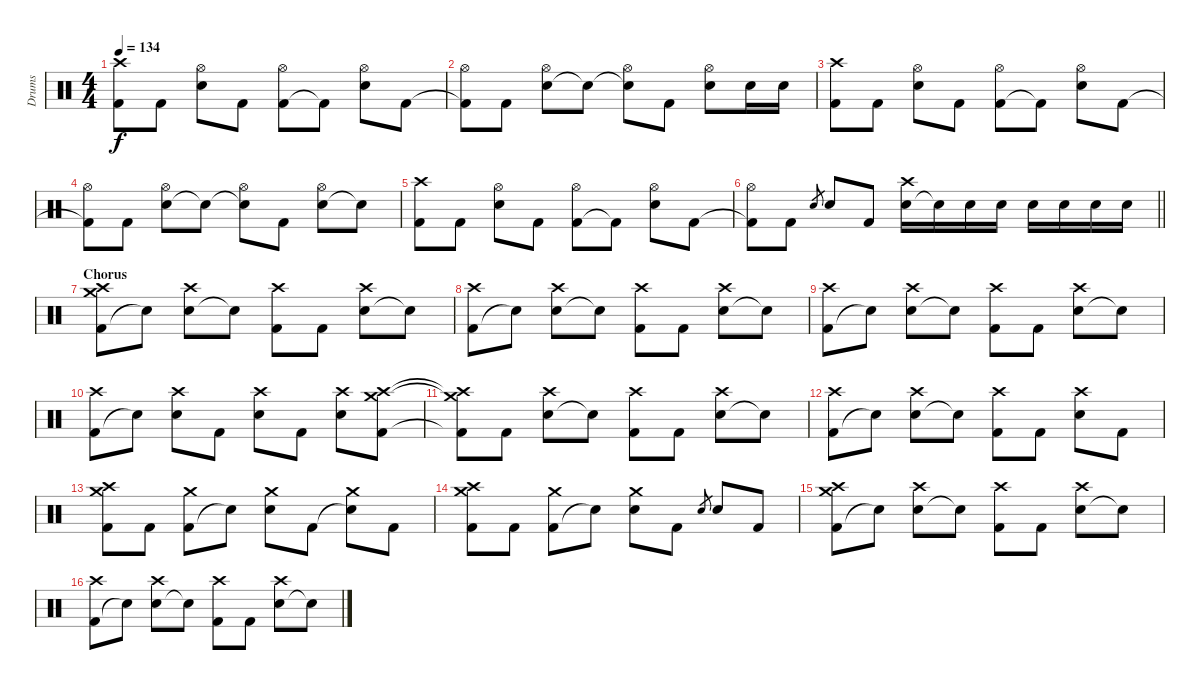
\track ("Drums" "Drums") {instrument percussion}
\staff {score}
\articulation defaults
\ts (4 4)
\tempo 134
\clef neutral
\ks c
("Kick (hit) 2" "Crash high (hit)").8{dy f} "Kick (hit) 2".8 ("Electric Snare (hit)" "Hi-Hat (open)").8 "Kick (hit) 2".8 ("Kick (hit) 2" "Hi-Hat (open)").8 "Kick (hit) 2"{t}.8 ("Electric Snare (hit)" "Hi-Hat (open)").8 "Kick (hit) 2".8 |
("Kick (hit) 2"{t} "Hi-Hat (open)").8 "Kick (hit) 2".8 ("Electric Snare (hit)" "Hi-Hat (open)").8 "Electric Snare (hit)"{t}.8 ("Snare (hit)"{t} "Hi-Hat (open)").8 "Kick (hit) 2".8 ("Electric Snare (hit)" "Hi-Hat (open)").8 "Electric Snare (hit)".16 "Electric Snare (hit)".16 |
("Kick (hit) 2" "Crash high (hit)").8 "Kick (hit) 2".8 ("Electric Snare (hit)" "Hi-Hat (open)").8 "Kick (hit) 2".8 ("Kick (hit) 2" "Hi-Hat (open)").8 "Kick (hit) 2"{t}.8 ("Electric Snare (hit)" "Hi-Hat (open)").8 "Kick (hit) 2".8 |
("Kick (hit) 2"{t} "Hi-Hat (open)").8 "Kick (hit) 2".8 ("Electric Snare (hit)" "Hi-Hat (open)").8 "Electric Snare (hit)"{t}.8 ("Snare (hit)"{t} "Hi-Hat (open)").8 "Kick (hit) 2".8 ("Electric Snare (hit)" "Hi-Hat (open)").8 "Electric Snare (hit)"{t}.8 |
("Kick (hit) 2" "Crash high (hit)").8 "Kick (hit) 2".8 ("Electric Snare (hit)" "Hi-Hat (open)").8 "Kick (hit) 2".8 ("Kick (hit) 2" "Hi-Hat (open)").8 "Kick (hit) 2"{t}.8 ("Electric Snare (hit)" "Hi-Hat (open)").8 "Kick (hit) 2".8 |
\barLineRight lightlight
("Kick (hit) 2"{t} "Hi-Hat (open)").8 "Kick (hit) 2".8 "Electric Snare (hit)".8{gr} "Electric Snare (hit)".8 "Kick (hit) 2".8 ("Electric Snare (hit)" "Crash high (hit)").16 "Electric Snare (hit)"{t}.16 "Electric Snare (hit)".16 "Electric Snare (hit)".16 "Electric Snare (hit)".16 "Electric Snare (hit)".16 "Electric Snare (hit)".16 "Electric Snare (hit)".16 |
\section ("" "Chorus")
("Kick (hit) 2" "Crash medium (hit)" "Crash high (hit)").8 "Snare (hit)"{t}.8 ("Electric Snare (hit)" "Crash high (hit)").8 "Snare (hit)"{t}.8 ("Kick (hit) 2" "Crash high (hit)").8 "Kick (hit) 2".8 ("Electric Snare (hit)" "Crash high (hit)").8 "Snare (hit)"{t}.8 |
("Kick (hit) 2" "Crash high (hit)").8 "Snare (hit)"{t}.8 ("Electric Snare (hit)" "Crash high (hit)").8 "Snare (hit)"{t}.8 ("Kick (hit) 2" "Crash high (hit)").8 "Kick (hit) 2".8 ("Electric Snare (hit)" "Crash high (hit)").8 "Snare (hit)"{t}.8 |
("Kick (hit) 2" "Crash high (hit)").8 "Snare (hit)"{t}.8 ("Electric Snare (hit)" "Crash high (hit)").8 "Snare (hit)"{t}.8 ("Kick (hit) 2" "Crash high (hit)").8 "Kick (hit) 2".8 ("Electric Snare (hit)" "Crash high (hit)").8 "Snare (hit)"{t}.8 |
("Kick (hit) 2" "Crash high (hit)").8 "Snare (hit)"{t}.8 ("Electric Snare (hit)" "Crash high (hit)").8 "Kick (hit) 2".8 ("Electric Snare (hit)" "Crash high (hit)").8 "Kick (hit) 2".8 ("Electric Snare (hit)" "Crash high (hit)").8 ("Kick (hit) 2" "Crash medium (hit)" "Crash high (hit)").8 |
("Kick (hit) 2"{t} "Crash medium (hit)"{t} "Crash high (hit)"{t}).8 "Kick (hit) 2".8 ("Electric Snare (hit)" "Crash high (hit)").8 "Snare (hit)"{t}.8 ("Kick (hit) 2" "Crash high (hit)").8 "Kick (hit) 2".8 ("Electric Snare (hit)" "Crash high (hit)").8 "Snare (hit)"{t}.8 |
("Kick (hit) 2" "Crash high (hit)").8 "Snare (hit)"{t}.8 ("Electric Snare (hit)" "Crash high (hit)").8 "Snare (hit)"{t}.8 ("Kick (hit) 2" "Crash high (hit)").8 "Kick (hit) 2".8 ("Electric Snare (hit)" "Crash high (hit)").8 "Kick (hit) 2".8 |
("Kick (hit) 2" "Crash medium (hit)" "Crash high (hit)").8 "Kick (hit) 2".8 ("Kick (hit) 2" "Crash medium (hit)").8 "Snare (hit)"{t}.8 ("Electric Snare (hit)" "Crash medium (hit)").8 "Kick (hit) 2".8 ("Electric Snare (hit)"{t} "Crash medium (hit)").8 "Kick (hit) 2".8 |
("Kick (hit) 2" "Crash medium (hit)" "Crash high (hit)").8 "Kick (hit) 2".8 ("Kick (hit) 2" "Crash medium (hit)").8 "Snare (hit)"{t}.8 ("Electric Snare (hit)" "Crash medium (hit)").8 "Kick (hit) 2".8 "Electric Snare (hit)".8{gr} "Electric Snare (hit)".8 "Kick (hit) 2".8 |
("Kick (hit) 2" "Crash medium (hit)" "Crash high (hit)").8 "Snare (hit)"{t}.8 ("Electric Snare (hit)" "Crash high (hit)").8 "Snare (hit)"{t}.8 ("Kick (hit) 2" "Crash high (hit)").8 "Kick (hit) 2".8 ("Electric Snare (hit)" "Crash high (hit)").8 "Snare (hit)"{t}.8 |
("Kick (hit) 2" "Crash high (hit)").8 "Snare (hit)"{t}.8 ("Electric Snare (hit)" "Crash high (hit)").8 "Snare (hit)"{t}.8 ("Kick (hit) 2" "Crash high (hit)").8 "Kick (hit) 2".8 ("Electric Snare (hit)" "Crash high (hit)").8 "Snare (hit)"{t}.8
